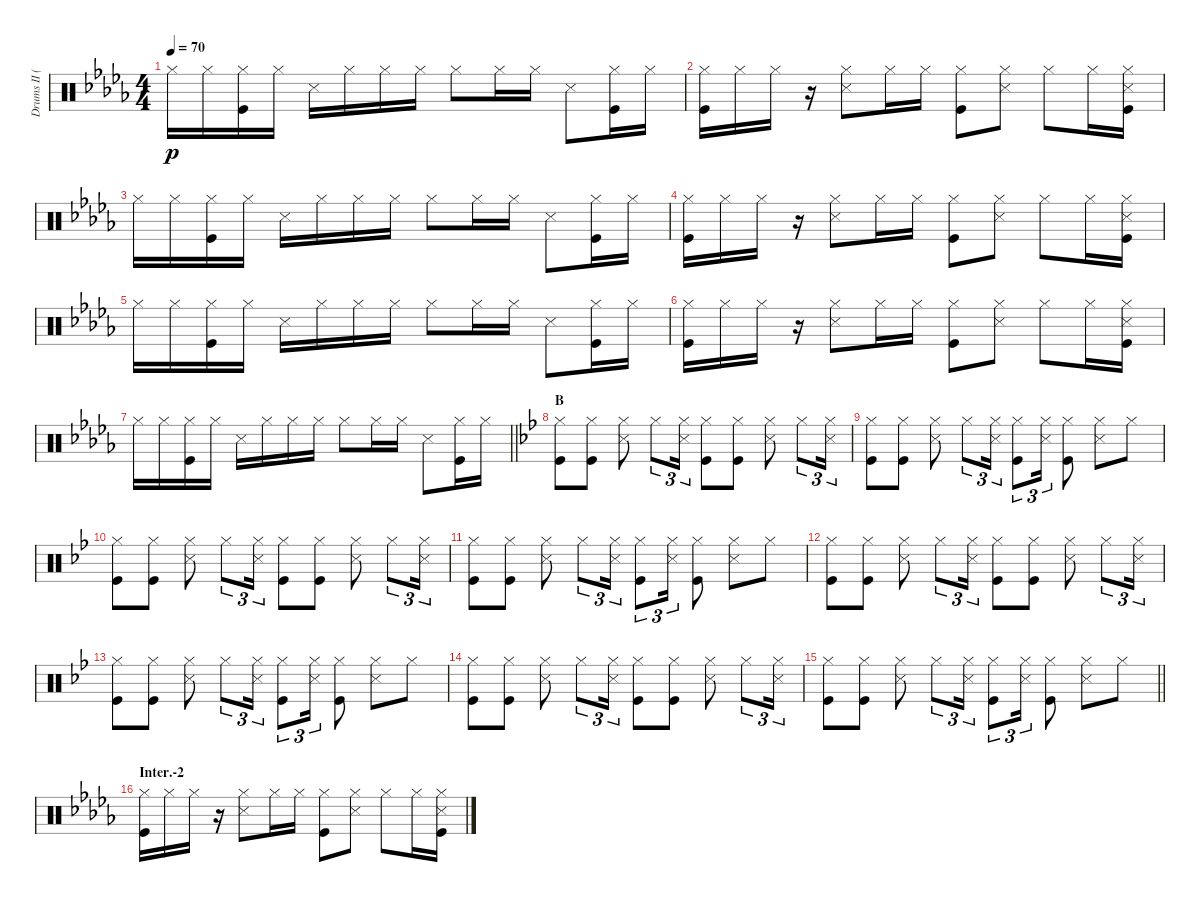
\track ("Drums II (Tainaka Ritsu)" "Drums II (") {instrument percussion}
\staff {score}
\articulation defaults
\ts (4 4)
\tempo 70
\clef neutral
\ks db "Hi-Hat (closed)".16{dy p} "Hi-Hat (closed)".16
("Hi-Hat (closed)" "Kick (hit)").16 "Hi-Hat (closed)".16 "Snare (side stick) 3".16 "Hi-Hat (closed)".16 "Hi-Hat (closed)".16 "Hi-Hat (closed)".16 "Hi-Hat (closed)".8 "Hi-Hat (closed)".16 "Hi-Hat (closed)".16 "Snare (side stick) 3".8 ("Hi-Hat (closed)" "Kick (hit)").16 "Hi-Hat (closed)".16 |
("Hi-Hat (closed)" "Kick (hit)").16 "Hi-Hat (closed)".16 "Hi-Hat (closed)".16 r.16 ("Hi-Hat (closed)" "Snare (side stick) 3").8 "Hi-Hat (closed)".16 "Hi-Hat (closed)".16 ("Hi-Hat (closed)" "Kick (hit)").8 ("Hi-Hat (closed)" "Snare (side stick) 3").8 "Hi-Hat (closed)".8 "Hi-Hat (closed)".16 ("Hi-Hat (closed)" "Snare (side stick) 3" "Kick (hit)").16 |
"Hi-Hat (closed)".16 "Hi-Hat (closed)".16 ("Hi-Hat (closed)" "Kick (hit)").16 "Hi-Hat (closed)".16 "Snare (side stick) 3".16 "Hi-Hat (closed)".16 "Hi-Hat (closed)".16 "Hi-Hat (closed)".16 "Hi-Hat (closed)".8 "Hi-Hat (closed)".16 "Hi-Hat (closed)".16 "Snare (side stick) 3".8 ("Hi-Hat (closed)" "Kick (hit)").16 "Hi-Hat (closed)".16 |
("Hi-Hat (closed)" "Kick (hit)").16 "Hi-Hat (closed)".16 "Hi-Hat (closed)".16 r.16 ("Hi-Hat (closed)" "Snare (side stick) 3").8 "Hi-Hat (closed)".16 "Hi-Hat (closed)".16 ("Hi-Hat (closed)" "Kick (hit)").8 ("Hi-Hat (closed)" "Snare (side stick) 3").8 "Hi-Hat (closed)".8 "Hi-Hat (closed)".16 ("Hi-Hat (closed)" "Snare (side stick) 3" "Kick (hit)").16 |
"Hi-Hat (closed)".16 "Hi-Hat (closed)".16 ("Hi-Hat (closed)" "Kick (hit)").16 "Hi-Hat (closed)".16 "Snare (side stick) 3".16 "Hi-Hat (closed)".16 "Hi-Hat (closed)".16 "Hi-Hat (closed)".16 "Hi-Hat (closed)".8 "Hi-Hat (closed)".16 "Hi-Hat (closed)".16 "Snare (side stick) 3".8 ("Hi-Hat (closed)" "Kick (hit)").16 "Hi-Hat (closed)".16 |
("Hi-Hat (closed)" "Kick (hit)").16 "Hi-Hat (closed)".16 "Hi-Hat (closed)".16 r.16 ("Hi-Hat (closed)" "Snare (side stick) 3").8 "Hi-Hat (closed)".16 "Hi-Hat (closed)".16 ("Hi-Hat (closed)" "Kick (hit)").8 ("Hi-Hat (closed)" "Snare (side stick) 3").8 "Hi-Hat (closed)".8 "Hi-Hat (closed)".16 ("Hi-Hat (closed)" "Snare (side stick) 3" "Kick (hit)").16 |
\barLineRight lightlight "Hi-Hat (closed)".16 "Hi-Hat (closed)".16
("Hi-Hat (closed)" "Kick (hit)").16 "Hi-Hat (closed)".16 "Snare (side stick) 3".16 "Hi-Hat (closed)".16 "Hi-Hat (closed)".16 "Hi-Hat (closed)".16 "Hi-Hat (closed)".8 "Hi-Hat (closed)".16 "Hi-Hat (closed)".16 "Snare (side stick) 3".8 ("Hi-Hat (closed)" "Kick (hit)").16 "Hi-Hat (closed)".16 |
\section ("" "B")
\ks bb
("Hi-Hat (closed)" "Kick (hit)").8 ("Hi-Hat (closed)" "Kick (hit)").8 ("Hi-Hat (closed)" "Snare (side stick) 3").8 "Hi-Hat (closed)".8{tu (3 2)} ("Hi-Hat (closed)" "Snare (side stick) 3").16{tu (3 2)} ("Hi-Hat (closed)" "Kick (hit)").8 ("Hi-Hat (closed)" "Kick (hit)").8 ("Hi-Hat (closed)" "Snare (side stick) 3").8 "Hi-Hat (closed)".8{tu (3 2)} ("Hi-Hat (closed)" "Snare (side stick) 3").16{tu (3 2)} |
("Hi-Hat (closed)" "Kick (hit)").8 ("Hi-Hat (closed)" "Kick (hit)").8 ("Hi-Hat (closed)" "Snare (side stick) 3").8 "Hi-Hat (closed)".8{tu (3 2)} ("Hi-Hat (closed)" "Snare (side stick) 3").16{tu (3 2)} ("Hi-Hat (closed)" "Kick (hit)").8{tu (3 2)} ("Hi-Hat (closed)" "Snare (side stick) 3").16{tu (3 2)} ("Hi-Hat (closed)" "Kick (hit)").8 ("Hi-Hat (closed)" "Snare (side stick) 3").8 "Hi-Hat (closed)".8 |
("Hi-Hat (closed)" "Kick (hit)").8 ("Hi-Hat (closed)" "Kick (hit)").8 ("Hi-Hat (closed)" "Snare (side stick) 3").8 "Hi-Hat (closed)".8{tu (3 2)} ("Hi-Hat (closed)" "Snare (side stick) 3").16{tu (3 2)} ("Hi-Hat (closed)" "Kick (hit)").8 ("Hi-Hat (closed)" "Kick (hit)").8 ("Hi-Hat (closed)" "Snare (side stick) 3").8 "Hi-Hat (closed)".8{tu (3 2)} ("Hi-Hat (closed)" "Snare (side stick) 3").16{tu (3 2)} |
("Hi-Hat (closed)" "Kick (hit)").8 ("Hi-Hat (closed)" "Kick (hit)").8 ("Hi-Hat (closed)" "Snare (side stick) 3").8 "Hi-Hat (closed)".8{tu (3 2)} ("Hi-Hat (closed)" "Snare (side stick) 3").16{tu (3 2)} ("Hi-Hat (closed)" "Kick (hit)").8{tu (3 2)} ("Hi-Hat (closed)" "Snare (side stick) 3").16{tu (3 2)} ("Hi-Hat (closed)" "Kick (hit)").8 ("Hi-Hat (closed)" "Snare (side stick) 3").8 "Hi-Hat (closed)".8 |
("Hi-Hat (closed)" "Kick (hit)").8 ("Hi-Hat (closed)" "Kick (hit)").8 ("Hi-Hat (closed)" "Snare (side stick) 3").8 "Hi-Hat (closed)".8{tu (3 2)} ("Hi-Hat (closed)" "Snare (side stick) 3").16{tu (3 2)} ("Hi-Hat (closed)" "Kick (hit)").8 ("Hi-Hat (closed)" "Kick (hit)").8 ("Hi-Hat (closed)" "Snare (side stick) 3").8 "Hi-Hat (closed)".8{tu (3 2)} ("Hi-Hat (closed)" "Snare (side stick) 3").16{tu (3 2)} |
("Hi-Hat (closed)" "Kick (hit)").8 ("Hi-Hat (closed)" "Kick (hit)").8 ("Hi-Hat (closed)" "Snare (side stick) 3").8 "Hi-Hat (closed)".8{tu (3 2)} ("Hi-Hat (closed)" "Snare (side stick) 3").16{tu (3 2)} ("Hi-Hat (closed)" "Kick (hit)").8{tu (3 2)} ("Hi-Hat (closed)" "Snare (side stick) 3").16{tu (3 2)} ("Hi-Hat (closed)" "Kick (hit)").8 ("Hi-Hat (closed)" "Snare (side stick) 3").8 "Hi-Hat (closed)".8 |
("Hi-Hat (closed)" "Kick (hit)").8 ("Hi-Hat (closed)" "Kick (hit)").8 ("Hi-Hat (closed)" "Snare (side stick) 3").8 "Hi-Hat (closed)".8{tu (3 2)} ("Hi-Hat (closed)" "Snare (side stick) 3").16{tu (3 2)} ("Hi-Hat (closed)" "Kick (hit)").8 ("Hi-Hat (closed)" "Kick (hit)").8 ("Hi-Hat (closed)" "Snare (side stick) 3").8 "Hi-Hat (closed)".8{tu (3 2)} ("Hi-Hat (closed)" "Snare (side stick) 3").16{tu (3 2)} |
\barLineRight lightlight
("Hi-Hat (closed)" "Kick (hit)").8 ("Hi-Hat (closed)" "Kick (hit)").8 ("Hi-Hat (closed)" "Snare (side stick) 3").8 "Hi-Hat (closed)".8{tu (3 2)} ("Hi-Hat (closed)" "Snare (side stick) 3").16{tu (3 2)} ("Hi-Hat (closed)" "Kick (hit)").8{tu (3 2)} ("Hi-Hat (closed)" "Snare (side stick) 3").16{tu (3 2)} ("Hi-Hat (closed)" "Kick (hit)").8 ("Hi-Hat (closed)" "Snare (side stick) 3").8 "Hi-Hat (closed)".8 |
\section ("" "Inter.-2")
\ks db
("Hi-Hat (closed)" "Kick (hit)").16 "Hi-Hat (closed)".16 "Hi-Hat (closed)".16 r.16 ("Hi-Hat (closed)" "Snare (side stick) 3").8 "Hi-Hat (closed)".16 "Hi-Hat (closed)".16 ("Hi-Hat (closed)" "Kick (hit)").8 ("Hi-Hat (closed)" "Snare (side stick) 3").8 "Hi-Hat (closed)".8 "Hi-Hat (closed)".16 ("Hi-Hat (closed)" "Snare (side stick) 3" "Kick (hit)").16
